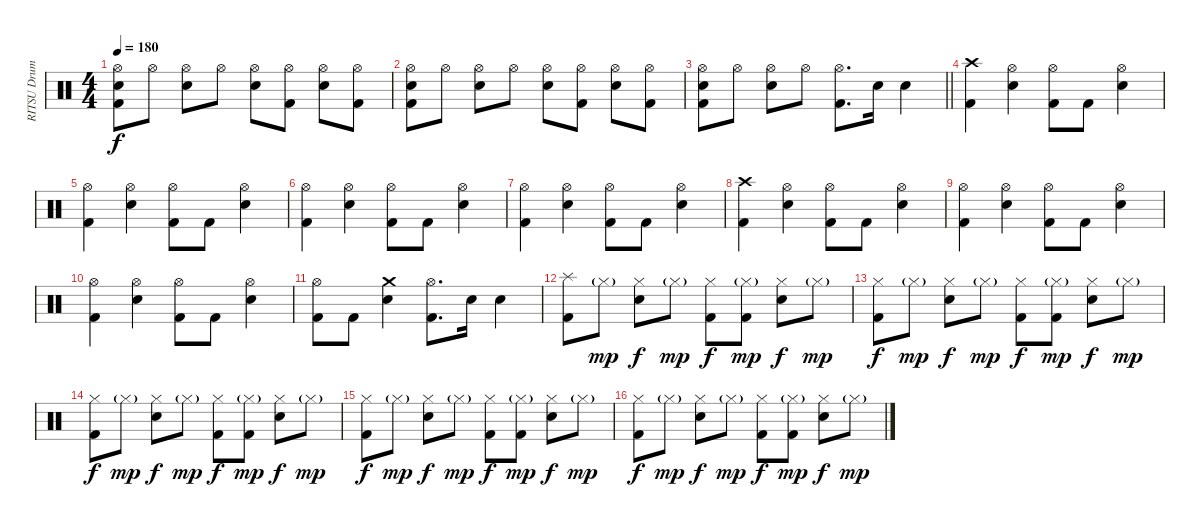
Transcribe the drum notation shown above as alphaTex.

\track ("RITSU Drums" "RITSU Drum") {instrument percussion}
\staff {score}
\articulation defaults
\ts (4 4)
\tempo 180
\clef neutral
\ks c
("Hi-Hat (open)" "Electric Snare (hit)" "Kick (hit) 2").8{dy f} "Hi-Hat (open)".8 ("Hi-Hat (open)" "Electric Snare (hit)").8 "Hi-Hat (open)".8 ("Hi-Hat (open)" "Electric Snare (hit)").8 ("Hi-Hat (open)" "Kick (hit) 2").8 ("Hi-Hat (open)" "Electric Snare (hit)").8 ("Hi-Hat (open)" "Kick (hit) 2").8 |
("Hi-Hat (open)" "Electric Snare (hit)" "Kick (hit) 2").8 "Hi-Hat (open)".8 ("Hi-Hat (open)" "Electric Snare (hit)").8 "Hi-Hat (open)".8 ("Hi-Hat (open)" "Electric Snare (hit)").8 ("Hi-Hat (open)" "Kick (hit) 2").8 ("Hi-Hat (open)" "Electric Snare (hit)").8 ("Hi-Hat (open)" "Kick (hit) 2").8 |
\barLineRight lightlight
("Hi-Hat (open)" "Electric Snare (hit)" "Kick (hit) 2").8 "Hi-Hat (open)".8 ("Hi-Hat (open)" "Electric Snare (hit)").8 "Hi-Hat (open)".8 ("Hi-Hat (open)" "Kick (hit) 2").8{d} "Electric Snare (hit)".16 "Electric Snare (hit)".4 |
("Crash high (hit)" "Kick (hit) 2").4 ("Hi-Hat (open)" "Electric Snare (hit)").4 ("Hi-Hat (open)" "Kick (hit) 2").8 "Kick (hit) 2".8 ("Hi-Hat (open)" "Electric Snare (hit)").4 |
("Hi-Hat (open)" "Kick (hit) 2").4 ("Hi-Hat (open)" "Electric Snare (hit)").4 ("Hi-Hat (open)" "Kick (hit) 2").8 "Kick (hit) 2".8 ("Hi-Hat (open)" "Electric Snare (hit)").4 |
("Hi-Hat (open)" "Kick (hit) 2").4 ("Hi-Hat (open)" "Electric Snare (hit)").4 ("Hi-Hat (open)" "Kick (hit) 2").8 "Kick (hit) 2".8 ("Hi-Hat (open)" "Electric Snare (hit)").4 |
("Hi-Hat (open)" "Kick (hit) 2").4 ("Hi-Hat (open)" "Electric Snare (hit)").4 ("Hi-Hat (open)" "Kick (hit) 2").8 "Kick (hit) 2".8 ("Hi-Hat (open)" "Electric Snare (hit)").4 |
("Crash high (hit)" "Kick (hit) 2").4 ("Hi-Hat (open)" "Electric Snare (hit)").4 ("Hi-Hat (open)" "Kick (hit) 2").8 "Kick (hit) 2".8 ("Hi-Hat (open)" "Electric Snare (hit)").4 |
("Hi-Hat (open)" "Kick (hit) 2").4 ("Hi-Hat (open)" "Electric Snare (hit)").4 ("Hi-Hat (open)" "Kick (hit) 2").8 "Kick (hit) 2".8 ("Hi-Hat (open)" "Electric Snare (hit)").4 |
("Hi-Hat (open)" "Kick (hit) 2").4 ("Hi-Hat (open)" "Electric Snare (hit)").4 ("Hi-Hat (open)" "Kick (hit) 2").8 "Kick (hit) 2".8 ("Hi-Hat (open)" "Electric Snare (hit)").4 |
("Hi-Hat (open)" "Kick (hit) 2").8 "Kick (hit) 2".8 ("Crash medium (hit)" "Electric Snare (hit)").4 ("Hi-Hat (open)" "Kick (hit) 2").8{d} "Electric Snare (hit)".16 "Electric Snare (hit)".4 |
("Splash (hit)" "Kick (hit) 2").8 "Hi-Hat (closed)"{g}.8{dy mp} ("Hi-Hat (closed)" "Electric Snare (hit)").8{dy f} "Hi-Hat (closed)"{g}.8{dy mp} ("Hi-Hat (closed)" "Kick (hit) 2").8{dy f} ("Hi-Hat (closed)"{g} "Kick (hit) 2").8{dy mp} ("Hi-Hat (closed)" "Electric Snare (hit)").8{dy f} "Hi-Hat (closed)"{g}.8{dy mp} |
("Hi-Hat (closed)" "Kick (hit) 2").8{dy f} "Hi-Hat (closed)"{g}.8{dy mp} ("Hi-Hat (closed)" "Electric Snare (hit)").8{dy f} "Hi-Hat (closed)"{g}.8{dy mp} ("Hi-Hat (closed)" "Kick (hit) 2").8{dy f} ("Hi-Hat (closed)"{g} "Kick (hit) 2").8{dy mp} ("Hi-Hat (closed)" "Electric Snare (hit)").8{dy f} "Hi-Hat (closed)"{g}.8{dy mp} |
("Hi-Hat (closed)" "Kick (hit) 2").8{dy f} "Hi-Hat (closed)"{g}.8{dy mp} ("Hi-Hat (closed)" "Electric Snare (hit)").8{dy f} "Hi-Hat (closed)"{g}.8{dy mp} ("Hi-Hat (closed)" "Kick (hit) 2").8{dy f} ("Hi-Hat (closed)"{g} "Kick (hit) 2").8{dy mp} ("Hi-Hat (closed)" "Electric Snare (hit)").8{dy f} "Hi-Hat (closed)"{g}.8{dy mp} |
("Hi-Hat (closed)" "Kick (hit) 2").8{dy f} "Hi-Hat (closed)"{g}.8{dy mp} ("Hi-Hat (closed)" "Electric Snare (hit)").8{dy f} "Hi-Hat (closed)"{g}.8{dy mp} ("Hi-Hat (closed)" "Kick (hit) 2").8{dy f} ("Hi-Hat (closed)"{g} "Kick (hit) 2").8{dy mp} ("Hi-Hat (closed)" "Electric Snare (hit)").8{dy f} "Hi-Hat (closed)"{g}.8{dy mp} |
("Hi-Hat (closed)" "Kick (hit) 2").8{dy f} "Hi-Hat (closed)"{g}.8{dy mp} ("Hi-Hat (closed)" "Electric Snare (hit)").8{dy f} "Hi-Hat (closed)"{g}.8{dy mp} ("Hi-Hat (closed)" "Kick (hit) 2").8{dy f} ("Hi-Hat (closed)"{g} "Kick (hit) 2").8{dy mp} ("Hi-Hat (closed)" "Electric Snare (hit)").8{dy f} "Hi-Hat (closed)"{g}.8{dy mp}
